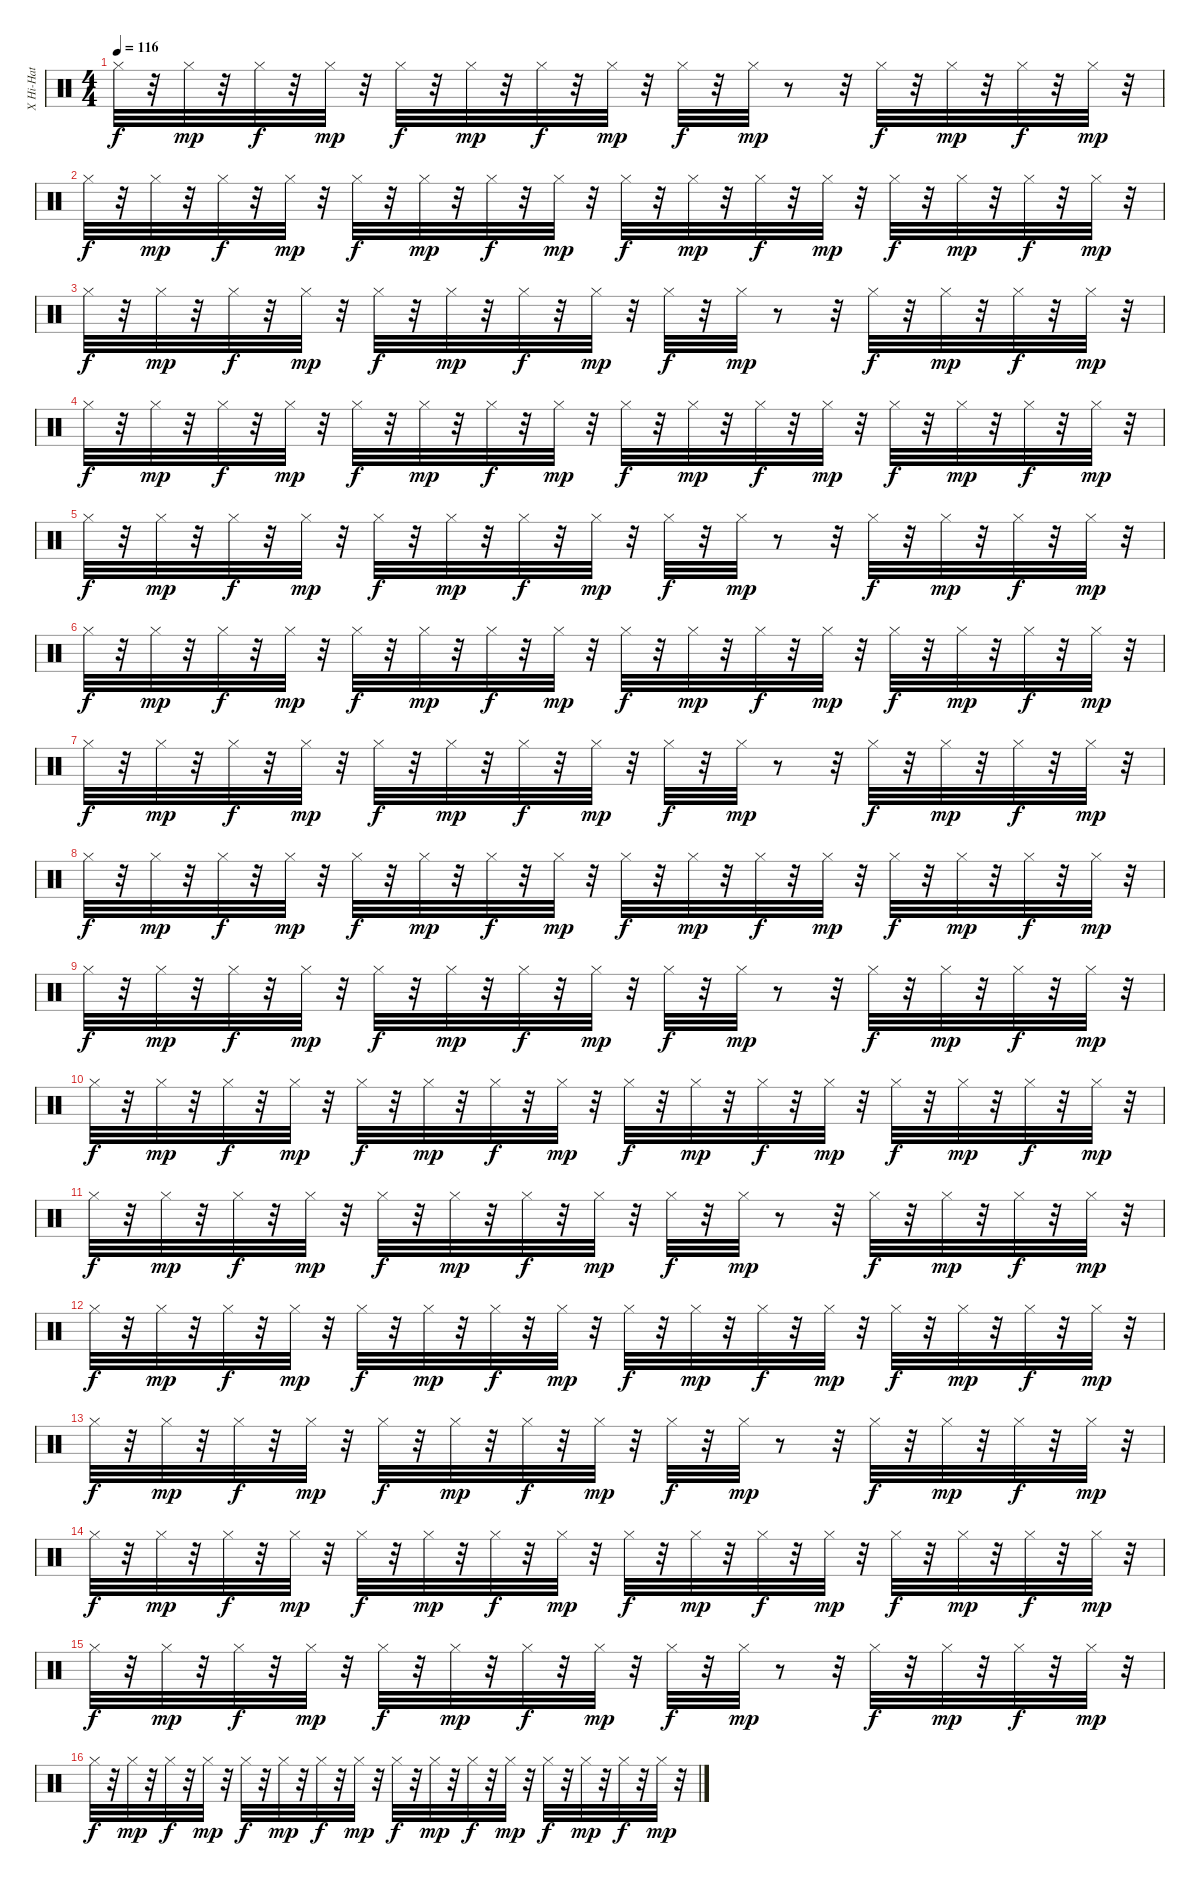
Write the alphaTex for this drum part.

\track ("X Hi-Hat            " "X Hi-Hat  ") {instrument percussion}
\staff {score}
\articulation defaults
\ts (4 4)
\tempo 116
\clef neutral
\ks c "Hi-Hat (closed)".32{dy f}
r.32 "Hi-Hat (closed)".32{dy mp} r.32 "Hi-Hat (closed)".32{dy f} r.32 "Hi-Hat (closed)".32{dy mp} r.32 "Hi-Hat (closed)".32{dy f} r.32 "Hi-Hat (closed)".32{dy mp} r.32 "Hi-Hat (closed)".32{dy f} r.32 "Hi-Hat (closed)".32{dy mp} r.32 "Hi-Hat (closed)".32{dy f} r.32 "Hi-Hat (closed)".32{dy mp} r.8 r.32 "Hi-Hat (closed)".32{dy f} r.32 "Hi-Hat (closed)".32{dy mp} r.32 "Hi-Hat (closed)".32{dy f} r.32 "Hi-Hat (closed)".32{dy mp} r.32 |
"Hi-Hat (closed)".32{dy f} r.32 "Hi-Hat (closed)".32{dy mp} r.32 "Hi-Hat (closed)".32{dy f} r.32 "Hi-Hat (closed)".32{dy mp} r.32 "Hi-Hat (closed)".32{dy f} r.32 "Hi-Hat (closed)".32{dy mp} r.32 "Hi-Hat (closed)".32{dy f} r.32 "Hi-Hat (closed)".32{dy mp} r.32 "Hi-Hat (closed)".32{dy f} r.32 "Hi-Hat (closed)".32{dy mp} r.32 "Hi-Hat (closed)".32{dy f} r.32 "Hi-Hat (closed)".32{dy mp} r.32 "Hi-Hat (closed)".32{dy f} r.32 "Hi-Hat (closed)".32{dy mp} r.32 "Hi-Hat (closed)".32{dy f} r.32 "Hi-Hat (closed)".32{dy mp} r.32 |
"Hi-Hat (closed)".32{dy f} r.32 "Hi-Hat (closed)".32{dy mp} r.32 "Hi-Hat (closed)".32{dy f} r.32 "Hi-Hat (closed)".32{dy mp} r.32 "Hi-Hat (closed)".32{dy f} r.32 "Hi-Hat (closed)".32{dy mp} r.32 "Hi-Hat (closed)".32{dy f} r.32 "Hi-Hat (closed)".32{dy mp} r.32 "Hi-Hat (closed)".32{dy f} r.32 "Hi-Hat (closed)".32{dy mp} r.8 r.32 "Hi-Hat (closed)".32{dy f} r.32 "Hi-Hat (closed)".32{dy mp} r.32 "Hi-Hat (closed)".32{dy f} r.32 "Hi-Hat (closed)".32{dy mp} r.32 |
"Hi-Hat (closed)".32{dy f} r.32 "Hi-Hat (closed)".32{dy mp} r.32 "Hi-Hat (closed)".32{dy f} r.32 "Hi-Hat (closed)".32{dy mp} r.32 "Hi-Hat (closed)".32{dy f} r.32 "Hi-Hat (closed)".32{dy mp} r.32 "Hi-Hat (closed)".32{dy f} r.32 "Hi-Hat (closed)".32{dy mp} r.32 "Hi-Hat (closed)".32{dy f} r.32 "Hi-Hat (closed)".32{dy mp} r.32 "Hi-Hat (closed)".32{dy f} r.32 "Hi-Hat (closed)".32{dy mp} r.32 "Hi-Hat (closed)".32{dy f} r.32 "Hi-Hat (closed)".32{dy mp} r.32 "Hi-Hat (closed)".32{dy f} r.32 "Hi-Hat (closed)".32{dy mp} r.32 |
"Hi-Hat (closed)".32{dy f} r.32 "Hi-Hat (closed)".32{dy mp} r.32 "Hi-Hat (closed)".32{dy f} r.32 "Hi-Hat (closed)".32{dy mp} r.32 "Hi-Hat (closed)".32{dy f} r.32 "Hi-Hat (closed)".32{dy mp} r.32 "Hi-Hat (closed)".32{dy f} r.32 "Hi-Hat (closed)".32{dy mp} r.32 "Hi-Hat (closed)".32{dy f} r.32 "Hi-Hat (closed)".32{dy mp} r.8 r.32 "Hi-Hat (closed)".32{dy f} r.32 "Hi-Hat (closed)".32{dy mp} r.32 "Hi-Hat (closed)".32{dy f} r.32 "Hi-Hat (closed)".32{dy mp} r.32 |
"Hi-Hat (closed)".32{dy f} r.32 "Hi-Hat (closed)".32{dy mp} r.32 "Hi-Hat (closed)".32{dy f} r.32 "Hi-Hat (closed)".32{dy mp} r.32 "Hi-Hat (closed)".32{dy f} r.32 "Hi-Hat (closed)".32{dy mp} r.32 "Hi-Hat (closed)".32{dy f} r.32 "Hi-Hat (closed)".32{dy mp} r.32 "Hi-Hat (closed)".32{dy f} r.32 "Hi-Hat (closed)".32{dy mp} r.32 "Hi-Hat (closed)".32{dy f} r.32 "Hi-Hat (closed)".32{dy mp} r.32 "Hi-Hat (closed)".32{dy f} r.32 "Hi-Hat (closed)".32{dy mp} r.32 "Hi-Hat (closed)".32{dy f} r.32 "Hi-Hat (closed)".32{dy mp} r.32 |
"Hi-Hat (closed)".32{dy f} r.32 "Hi-Hat (closed)".32{dy mp} r.32 "Hi-Hat (closed)".32{dy f} r.32 "Hi-Hat (closed)".32{dy mp} r.32 "Hi-Hat (closed)".32{dy f} r.32 "Hi-Hat (closed)".32{dy mp} r.32 "Hi-Hat (closed)".32{dy f} r.32 "Hi-Hat (closed)".32{dy mp} r.32 "Hi-Hat (closed)".32{dy f} r.32 "Hi-Hat (closed)".32{dy mp} r.8 r.32 "Hi-Hat (closed)".32{dy f} r.32 "Hi-Hat (closed)".32{dy mp} r.32 "Hi-Hat (closed)".32{dy f} r.32 "Hi-Hat (closed)".32{dy mp} r.32 |
"Hi-Hat (closed)".32{dy f} r.32 "Hi-Hat (closed)".32{dy mp} r.32 "Hi-Hat (closed)".32{dy f} r.32 "Hi-Hat (closed)".32{dy mp} r.32 "Hi-Hat (closed)".32{dy f} r.32 "Hi-Hat (closed)".32{dy mp} r.32 "Hi-Hat (closed)".32{dy f} r.32 "Hi-Hat (closed)".32{dy mp} r.32 "Hi-Hat (closed)".32{dy f} r.32 "Hi-Hat (closed)".32{dy mp} r.32 "Hi-Hat (closed)".32{dy f} r.32 "Hi-Hat (closed)".32{dy mp} r.32 "Hi-Hat (closed)".32{dy f} r.32 "Hi-Hat (closed)".32{dy mp} r.32 "Hi-Hat (closed)".32{dy f} r.32 "Hi-Hat (closed)".32{dy mp} r.32 |
"Hi-Hat (closed)".32{dy f} r.32 "Hi-Hat (closed)".32{dy mp} r.32 "Hi-Hat (closed)".32{dy f} r.32 "Hi-Hat (closed)".32{dy mp} r.32 "Hi-Hat (closed)".32{dy f} r.32 "Hi-Hat (closed)".32{dy mp} r.32 "Hi-Hat (closed)".32{dy f} r.32 "Hi-Hat (closed)".32{dy mp} r.32 "Hi-Hat (closed)".32{dy f} r.32 "Hi-Hat (closed)".32{dy mp} r.8 r.32 "Hi-Hat (closed)".32{dy f} r.32 "Hi-Hat (closed)".32{dy mp} r.32 "Hi-Hat (closed)".32{dy f} r.32 "Hi-Hat (closed)".32{dy mp} r.32 |
"Hi-Hat (closed)".32{dy f} r.32 "Hi-Hat (closed)".32{dy mp} r.32 "Hi-Hat (closed)".32{dy f} r.32 "Hi-Hat (closed)".32{dy mp} r.32 "Hi-Hat (closed)".32{dy f} r.32 "Hi-Hat (closed)".32{dy mp} r.32 "Hi-Hat (closed)".32{dy f} r.32 "Hi-Hat (closed)".32{dy mp} r.32 "Hi-Hat (closed)".32{dy f} r.32 "Hi-Hat (closed)".32{dy mp} r.32 "Hi-Hat (closed)".32{dy f} r.32 "Hi-Hat (closed)".32{dy mp} r.32 "Hi-Hat (closed)".32{dy f} r.32 "Hi-Hat (closed)".32{dy mp} r.32 "Hi-Hat (closed)".32{dy f} r.32 "Hi-Hat (closed)".32{dy mp} r.32 |
"Hi-Hat (closed)".32{dy f} r.32 "Hi-Hat (closed)".32{dy mp} r.32 "Hi-Hat (closed)".32{dy f} r.32 "Hi-Hat (closed)".32{dy mp} r.32 "Hi-Hat (closed)".32{dy f} r.32 "Hi-Hat (closed)".32{dy mp} r.32 "Hi-Hat (closed)".32{dy f} r.32 "Hi-Hat (closed)".32{dy mp} r.32 "Hi-Hat (closed)".32{dy f} r.32 "Hi-Hat (closed)".32{dy mp} r.8 r.32 "Hi-Hat (closed)".32{dy f} r.32 "Hi-Hat (closed)".32{dy mp} r.32 "Hi-Hat (closed)".32{dy f} r.32 "Hi-Hat (closed)".32{dy mp} r.32 |
"Hi-Hat (closed)".32{dy f} r.32 "Hi-Hat (closed)".32{dy mp} r.32 "Hi-Hat (closed)".32{dy f} r.32 "Hi-Hat (closed)".32{dy mp} r.32 "Hi-Hat (closed)".32{dy f} r.32 "Hi-Hat (closed)".32{dy mp} r.32 "Hi-Hat (closed)".32{dy f} r.32 "Hi-Hat (closed)".32{dy mp} r.32 "Hi-Hat (closed)".32{dy f} r.32 "Hi-Hat (closed)".32{dy mp} r.32 "Hi-Hat (closed)".32{dy f} r.32 "Hi-Hat (closed)".32{dy mp} r.32 "Hi-Hat (closed)".32{dy f} r.32 "Hi-Hat (closed)".32{dy mp} r.32 "Hi-Hat (closed)".32{dy f} r.32 "Hi-Hat (closed)".32{dy mp} r.32 |
"Hi-Hat (closed)".32{dy f} r.32 "Hi-Hat (closed)".32{dy mp} r.32 "Hi-Hat (closed)".32{dy f} r.32 "Hi-Hat (closed)".32{dy mp} r.32 "Hi-Hat (closed)".32{dy f} r.32 "Hi-Hat (closed)".32{dy mp} r.32 "Hi-Hat (closed)".32{dy f} r.32 "Hi-Hat (closed)".32{dy mp} r.32 "Hi-Hat (closed)".32{dy f} r.32 "Hi-Hat (closed)".32{dy mp} r.8 r.32 "Hi-Hat (closed)".32{dy f} r.32 "Hi-Hat (closed)".32{dy mp} r.32 "Hi-Hat (closed)".32{dy f} r.32 "Hi-Hat (closed)".32{dy mp} r.32 |
"Hi-Hat (closed)".32{dy f} r.32 "Hi-Hat (closed)".32{dy mp} r.32 "Hi-Hat (closed)".32{dy f} r.32 "Hi-Hat (closed)".32{dy mp} r.32 "Hi-Hat (closed)".32{dy f} r.32 "Hi-Hat (closed)".32{dy mp} r.32 "Hi-Hat (closed)".32{dy f} r.32 "Hi-Hat (closed)".32{dy mp} r.32 "Hi-Hat (closed)".32{dy f} r.32 "Hi-Hat (closed)".32{dy mp} r.32 "Hi-Hat (closed)".32{dy f} r.32 "Hi-Hat (closed)".32{dy mp} r.32 "Hi-Hat (closed)".32{dy f} r.32 "Hi-Hat (closed)".32{dy mp} r.32 "Hi-Hat (closed)".32{dy f} r.32 "Hi-Hat (closed)".32{dy mp} r.32 |
"Hi-Hat (closed)".32{dy f} r.32 "Hi-Hat (closed)".32{dy mp} r.32 "Hi-Hat (closed)".32{dy f} r.32 "Hi-Hat (closed)".32{dy mp} r.32 "Hi-Hat (closed)".32{dy f} r.32 "Hi-Hat (closed)".32{dy mp} r.32 "Hi-Hat (closed)".32{dy f} r.32 "Hi-Hat (closed)".32{dy mp} r.32 "Hi-Hat (closed)".32{dy f} r.32 "Hi-Hat (closed)".32{dy mp} r.8 r.32 "Hi-Hat (closed)".32{dy f} r.32 "Hi-Hat (closed)".32{dy mp} r.32 "Hi-Hat (closed)".32{dy f} r.32 "Hi-Hat (closed)".32{dy mp} r.32 |
"Hi-Hat (closed)".32{dy f} r.32 "Hi-Hat (closed)".32{dy mp} r.32 "Hi-Hat (closed)".32{dy f} r.32 "Hi-Hat (closed)".32{dy mp} r.32 "Hi-Hat (closed)".32{dy f} r.32 "Hi-Hat (closed)".32{dy mp} r.32 "Hi-Hat (closed)".32{dy f} r.32 "Hi-Hat (closed)".32{dy mp} r.32 "Hi-Hat (closed)".32{dy f} r.32 "Hi-Hat (closed)".32{dy mp} r.32 "Hi-Hat (closed)".32{dy f} r.32 "Hi-Hat (closed)".32{dy mp} r.32 "Hi-Hat (closed)".32{dy f} r.32 "Hi-Hat (closed)".32{dy mp} r.32 "Hi-Hat (closed)".32{dy f} r.32 "Hi-Hat (closed)".32{dy mp} r.32
